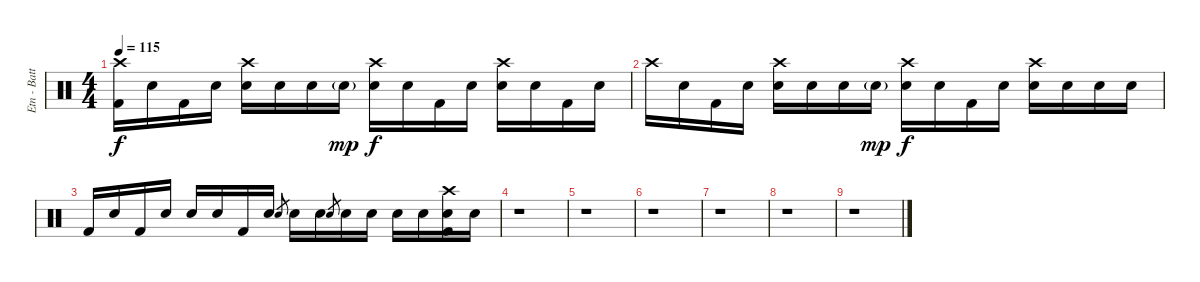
\track ("Etn - Batterie" "Etn - Batt") {instrument percussion}
\staff {score}
\articulation defaults
\ts (4 4)
\tempo 115
\clef neutral
\ks c
("Crash high (hit)" "Kick (hit) 2").16{dy f} "Snare (hit)".16 "Kick (hit) 2".16 "Snare (hit)".16 ("Crash high (hit)" "Electric Snare (hit)").16 "Snare (hit)".16 "Snare (hit)".16 "Electric Snare (hit)"{g}.16{dy mp} ("Crash high (hit)" "Electric Snare (hit)").16{dy f} "Snare (hit)".16 "Kick (hit) 2".16 "Snare (hit)".16 ("Crash high (hit)" "Electric Snare (hit)").16 "Snare (hit)".16 "Kick (hit) 2".16 "Snare (hit)".16 |
"Crash high (hit)".16 "Snare (hit)".16 "Kick (hit) 2".16 "Snare (hit)".16 ("Crash high (hit)" "Electric Snare (hit)").16 "Snare (hit)".16 "Snare (hit)".16 "Electric Snare (hit)"{g}.16{dy mp} ("Crash high (hit)" "Electric Snare (hit)").16{dy f} "Snare (hit)".16 "Kick (hit) 2".16 "Snare (hit)".16 ("Crash high (hit)" "Electric Snare (hit)").16 "Snare (hit)".16 "Electric Snare (hit)".16 "Electric Snare (hit)".16 |
"Kick (hit) 2".16 "Snare (hit)".16 "Kick (hit) 2".16 "Snare (hit)".16 "Electric Snare (hit)".16 "Snare (hit)".16 "Kick (hit) 2".16 "Snare (hit)".16 "Electric Snare (hit)".8{gr} "Electric Snare (hit)".16 "Snare (hit)".16 "Electric Snare (hit)".8{gr} "Electric Snare (hit)".16 "Snare (hit)".16 "Electric Snare (hit)".16 "Snare (hit)".16 ("Crash high (hit)" "Electric Snare (hit)" "Kick (hit) 2").16 "Snare (hit)".16 |
r.1 |
r.1 |
r.1 |
r.1 |
r.1 |
r.1
